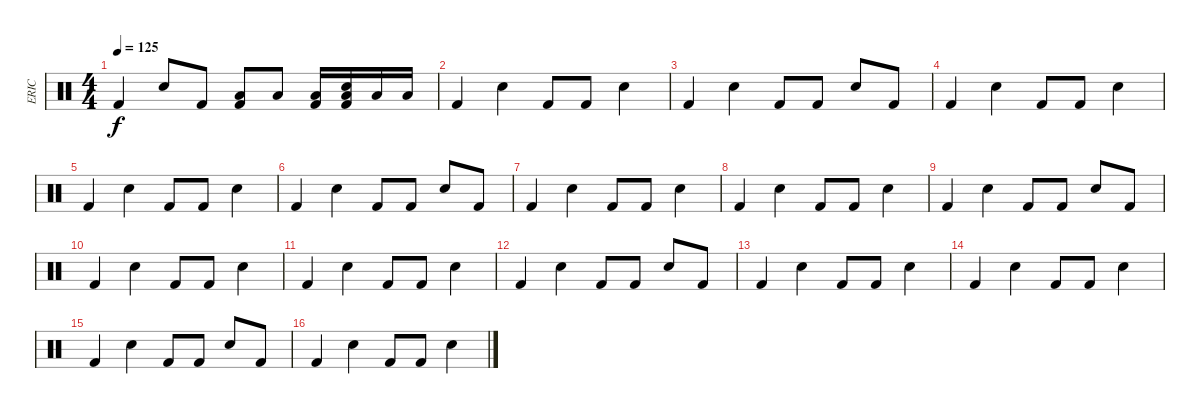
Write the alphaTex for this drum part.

\track ("ERIC" "ERIC") {instrument percussion}
\staff {score}
\articulation defaults
\ts (4 4)
\tempo 125
\clef neutral
\ks c "Kick (hit) 2".4{dy f} "Electric Snare (hit)".8 "Kick (hit) 2".8
("Low Floor Tom (hit)" "Kick (hit) 2").8 "Low Floor Tom (hit)".8 ("Low Floor Tom (hit)" "Kick (hit) 2").16 ("Electric Snare (hit)" "Low Floor Tom (hit)" "Kick (hit) 2").16 "Low Tom (hit)".16 "Low Floor Tom (hit)".16 |
"Kick (hit) 2".4 "Electric Snare (hit)".4 "Kick (hit) 2".8 "Kick (hit) 2".8 "Electric Snare (hit)".4 |
"Kick (hit) 2".4 "Electric Snare (hit)".4 "Kick (hit) 2".8 "Kick (hit) 2".8 "Electric Snare (hit)".8 "Kick (hit) 2".8 |
"Kick (hit) 2".4 "Electric Snare (hit)".4 "Kick (hit) 2".8 "Kick (hit) 2".8 "Electric Snare (hit)".4 |
"Kick (hit) 2".4 "Electric Snare (hit)".4 "Kick (hit) 2".8 "Kick (hit) 2".8 "Electric Snare (hit)".4 |
"Kick (hit) 2".4 "Electric Snare (hit)".4 "Kick (hit) 2".8 "Kick (hit) 2".8 "Electric Snare (hit)".8 "Kick (hit) 2".8 |
"Kick (hit) 2".4 "Electric Snare (hit)".4 "Kick (hit) 2".8 "Kick (hit) 2".8 "Electric Snare (hit)".4 |
"Kick (hit) 2".4 "Electric Snare (hit)".4 "Kick (hit) 2".8 "Kick (hit) 2".8 "Electric Snare (hit)".4 |
"Kick (hit) 2".4 "Electric Snare (hit)".4 "Kick (hit) 2".8 "Kick (hit) 2".8 "Electric Snare (hit)".8 "Kick (hit) 2".8 |
"Kick (hit) 2".4 "Electric Snare (hit)".4 "Kick (hit) 2".8 "Kick (hit) 2".8 "Electric Snare (hit)".4 |
"Kick (hit) 2".4 "Electric Snare (hit)".4 "Kick (hit) 2".8 "Kick (hit) 2".8 "Electric Snare (hit)".4 |
"Kick (hit) 2".4 "Electric Snare (hit)".4 "Kick (hit) 2".8 "Kick (hit) 2".8 "Electric Snare (hit)".8 "Kick (hit) 2".8 |
"Kick (hit) 2".4 "Electric Snare (hit)".4 "Kick (hit) 2".8 "Kick (hit) 2".8 "Electric Snare (hit)".4 |
"Kick (hit) 2".4 "Electric Snare (hit)".4 "Kick (hit) 2".8 "Kick (hit) 2".8 "Electric Snare (hit)".4 |
"Kick (hit) 2".4 "Electric Snare (hit)".4 "Kick (hit) 2".8 "Kick (hit) 2".8 "Electric Snare (hit)".8 "Kick (hit) 2".8 |
"Kick (hit) 2".4 "Electric Snare (hit)".4 "Kick (hit) 2".8 "Kick (hit) 2".8 "Electric Snare (hit)".4
